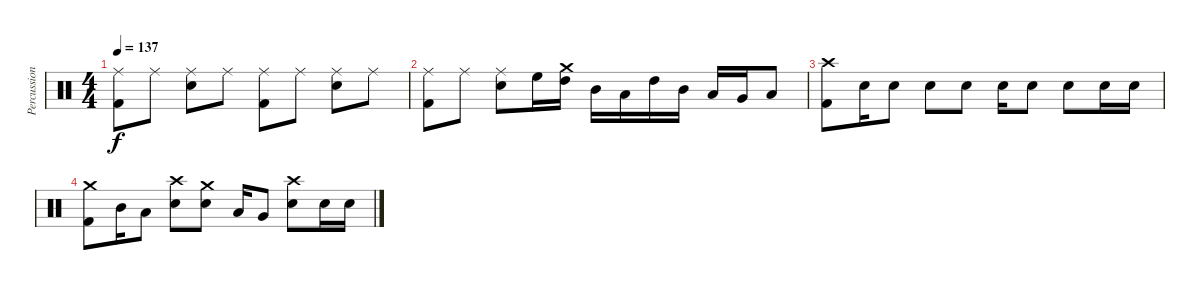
\track ("Percussion" "Percussion") {instrument percussion}
\staff {score}
\articulation defaults
\ts (4 4)
\tempo 137
\clef neutral
\ks c
("Ride (middle)" "Kick (hit) 2").8{dy f} "Ride (middle)".8 ("Ride (middle)" "Snare (hit) 2").8 "Ride (middle)".8 ("Ride (middle)" "Kick (hit) 2").8 "Ride (middle)".8 ("Ride (middle)" "Snare (hit) 2").8 "Ride (middle)".8 |
("Ride (middle)" "Kick (hit) 2").8 "Ride (middle)".8 ("Ride (middle)" "Snare (hit) 2").8 "High Floor Tom (hit)".16 ("Crash medium (hit)" "High Tom (hit)").16 "Mid Tom (hit)".16 "Low Tom (hit)".16 "High Tom (hit)".16 "Mid Tom (hit)".16 "Low Tom (hit)".16 "Very Low Tom (hit)".16 "Low Floor Tom (hit)".8 |
("Crash high (hit)" "Kick (hit) 2").8 "Snare (hit) 2".16 "Snare (hit) 2".8 "Snare (hit) 2".8 "Snare (hit) 2".8 "Snare (hit) 2".16 "Snare (hit) 2".8 "Snare (hit) 2".8 "Snare (hit) 2".16 "Snare (hit) 2".16 |
("Crash medium (hit)" "Kick (hit) 2").8 "Mid Tom (hit)".16 "Low Tom (hit)".8 ("Crash high (hit)" "Snare (hit) 2").8 ("Crash medium (hit)" "Snare (hit) 2").8 "Low Tom (hit)".16 "Very Low Tom (hit)".8 ("Crash high (hit)" "Snare (hit) 2").8 "Snare (hit) 2".16 "Snare (hit) 2".16
